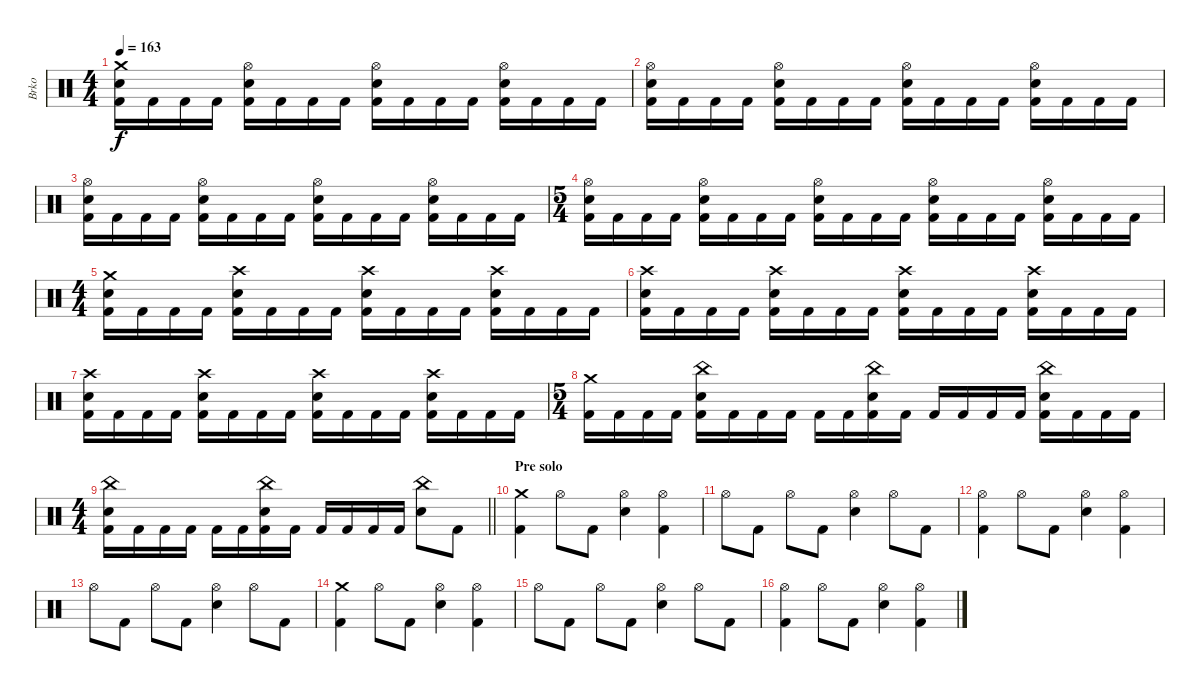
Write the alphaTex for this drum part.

\track ("Brko" "Brko") {instrument percussion}
\staff {score}
\articulation defaults
\ts (4 4)
\tempo 163
\clef neutral
\ks c
("Crash medium (hit)" "Electric Snare (hit)" "Kick (hit) 2").16{dy f} "Kick (hit) 2".16 "Kick (hit) 2".16 "Kick (hit) 2".16 ("Hi-Hat (open)" "Electric Snare (hit)" "Kick (hit) 2").16 "Kick (hit) 2".16 "Kick (hit) 2".16 "Kick (hit) 2".16 ("Hi-Hat (open)" "Electric Snare (hit)" "Kick (hit) 2").16 "Kick (hit) 2".16 "Kick (hit) 2".16 "Kick (hit) 2".16 ("Hi-Hat (open)" "Electric Snare (hit)" "Kick (hit) 2").16 "Kick (hit) 2".16 "Kick (hit) 2".16 "Kick (hit) 2".16 |
("Hi-Hat (open)" "Electric Snare (hit)" "Kick (hit) 2").16 "Kick (hit) 2".16 "Kick (hit) 2".16 "Kick (hit) 2".16 ("Hi-Hat (open)" "Electric Snare (hit)" "Kick (hit) 2").16 "Kick (hit) 2".16 "Kick (hit) 2".16 "Kick (hit) 2".16 ("Hi-Hat (open)" "Electric Snare (hit)" "Kick (hit) 2").16 "Kick (hit) 2".16 "Kick (hit) 2".16 "Kick (hit) 2".16 ("Hi-Hat (open)" "Electric Snare (hit)" "Kick (hit) 2").16 "Kick (hit) 2".16 "Kick (hit) 2".16 "Kick (hit) 2".16 |
("Hi-Hat (open)" "Electric Snare (hit)" "Kick (hit) 2").16 "Kick (hit) 2".16 "Kick (hit) 2".16 "Kick (hit) 2".16 ("Hi-Hat (open)" "Electric Snare (hit)" "Kick (hit) 2").16 "Kick (hit) 2".16 "Kick (hit) 2".16 "Kick (hit) 2".16 ("Hi-Hat (open)" "Electric Snare (hit)" "Kick (hit) 2").16 "Kick (hit) 2".16 "Kick (hit) 2".16 "Kick (hit) 2".16 ("Hi-Hat (open)" "Electric Snare (hit)" "Kick (hit) 2").16 "Kick (hit) 2".16 "Kick (hit) 2".16 "Kick (hit) 2".16 |
\ts (5 4)
("Hi-Hat (open)" "Electric Snare (hit)" "Kick (hit) 2").16 "Kick (hit) 2".16 "Kick (hit) 2".16 "Kick (hit) 2".16 ("Hi-Hat (open)" "Electric Snare (hit)" "Kick (hit) 2").16 "Kick (hit) 2".16 "Kick (hit) 2".16 "Kick (hit) 2".16 ("Hi-Hat (open)" "Electric Snare (hit)" "Kick (hit) 2").16 "Kick (hit) 2".16 "Kick (hit) 2".16 "Kick (hit) 2".16 ("Hi-Hat (open)" "Electric Snare (hit)" "Kick (hit) 2").16 "Kick (hit) 2".16 "Kick (hit) 2".16 "Kick (hit) 2".16 ("Hi-Hat (open)" "Electric Snare (hit)" "Kick (hit) 2").16 "Kick (hit) 2".16 "Kick (hit) 2".16 "Kick (hit) 2".16 |
\ts (4 4)
("Crash medium (hit)" "Electric Snare (hit)" "Kick (hit) 2").16 "Kick (hit) 2".16 "Kick (hit) 2".16 "Kick (hit) 2".16 ("Crash high (hit)" "Electric Snare (hit)" "Kick (hit) 2").16 "Kick (hit) 2".16 "Kick (hit) 2".16 "Kick (hit) 2".16 ("Crash high (hit)" "Electric Snare (hit)" "Kick (hit) 2").16 "Kick (hit) 2".16 "Kick (hit) 2".16 "Kick (hit) 2".16 ("Crash high (hit)" "Electric Snare (hit)" "Kick (hit) 2").16 "Kick (hit) 2".16 "Kick (hit) 2".16 "Kick (hit) 2".16 |
("Crash high (hit)" "Electric Snare (hit)" "Kick (hit) 2").16 "Kick (hit) 2".16 "Kick (hit) 2".16 "Kick (hit) 2".16 ("Crash high (hit)" "Electric Snare (hit)" "Kick (hit) 2").16 "Kick (hit) 2".16 "Kick (hit) 2".16 "Kick (hit) 2".16 ("Crash high (hit)" "Electric Snare (hit)" "Kick (hit) 2").16 "Kick (hit) 2".16 "Kick (hit) 2".16 "Kick (hit) 2".16 ("Crash high (hit)" "Electric Snare (hit)" "Kick (hit) 2").16 "Kick (hit) 2".16 "Kick (hit) 2".16 "Kick (hit) 2".16 |
("Crash high (hit)" "Electric Snare (hit)" "Kick (hit) 2").16 "Kick (hit) 2".16 "Kick (hit) 2".16 "Kick (hit) 2".16 ("Crash high (hit)" "Electric Snare (hit)" "Kick (hit) 2").16 "Kick (hit) 2".16 "Kick (hit) 2".16 "Kick (hit) 2".16 ("Crash high (hit)" "Electric Snare (hit)" "Kick (hit) 2").16 "Kick (hit) 2".16 "Kick (hit) 2".16 "Kick (hit) 2".16 ("Crash high (hit)" "Electric Snare (hit)" "Kick (hit) 2").16 "Kick (hit) 2".16 "Kick (hit) 2".16 "Kick (hit) 2".16 |
\ts (5 4)
("Crash medium (hit)" "Kick (hit) 2").16 "Kick (hit) 2".16 "Kick (hit) 2".16 "Kick (hit) 2".16 ("China (hit)" "Electric Snare (hit)" "Kick (hit) 2").16 "Kick (hit) 2".16 "Kick (hit) 2".16 "Kick (hit) 2".16 "Kick (hit) 2".16 "Kick (hit) 2".16 ("China (hit)" "Electric Snare (hit)" "Kick (hit) 2").16 "Kick (hit) 2".16 "Kick (hit) 2".16 "Kick (hit) 2".16 "Kick (hit) 2".16 "Kick (hit) 2".16 ("China (hit)" "Electric Snare (hit)" "Kick (hit) 2").16 "Kick (hit) 2".16 "Kick (hit) 2".16 "Kick (hit) 2".16 |
\ts (4 4)
\barLineRight lightlight
("China (hit)" "Electric Snare (hit)" "Kick (hit) 2").16 "Kick (hit) 2".16 "Kick (hit) 2".16 "Kick (hit) 2".16 "Kick (hit) 2".16 "Kick (hit) 2".16 ("China (hit)" "Electric Snare (hit)" "Kick (hit) 2").16 "Kick (hit) 2".16 "Kick (hit) 2".16 "Kick (hit) 2".16 "Kick (hit) 2".16 "Kick (hit) 2".16 ("China (hit)" "Electric Snare (hit)").8 "Kick (hit) 2".8 |
\section ("" "Pre solo")
("Crash medium (hit)" "Kick (hit) 2").4 "Hi-Hat (open)".8 "Kick (hit) 2".8 ("Hi-Hat (open)" "Electric Snare (hit)").4 ("Hi-Hat (open)" "Kick (hit) 2").4 |
"Hi-Hat (open)".8 "Kick (hit) 2".8 "Hi-Hat (open)".8 "Kick (hit) 2".8 ("Hi-Hat (open)" "Electric Snare (hit)").4 "Hi-Hat (open)".8 "Kick (hit) 2".8 |
("Hi-Hat (open)" "Kick (hit) 2").4 "Hi-Hat (open)".8 "Kick (hit) 2".8 ("Hi-Hat (open)" "Electric Snare (hit)").4 ("Hi-Hat (open)" "Kick (hit) 2").4 |
"Hi-Hat (open)".8 "Kick (hit) 2".8 "Hi-Hat (open)".8 "Kick (hit) 2".8 ("Hi-Hat (open)" "Electric Snare (hit)").4 "Hi-Hat (open)".8 "Kick (hit) 2".8 |
("Crash medium (hit)" "Kick (hit) 2").4 "Hi-Hat (open)".8 "Kick (hit) 2".8 ("Hi-Hat (open)" "Electric Snare (hit)").4 ("Hi-Hat (open)" "Kick (hit) 2").4 |
"Hi-Hat (open)".8 "Kick (hit) 2".8 "Hi-Hat (open)".8 "Kick (hit) 2".8 ("Hi-Hat (open)" "Electric Snare (hit)").4 "Hi-Hat (open)".8 "Kick (hit) 2".8 |
("Hi-Hat (open)" "Kick (hit) 2").4 "Hi-Hat (open)".8 "Kick (hit) 2".8 ("Hi-Hat (open)" "Electric Snare (hit)").4 ("Hi-Hat (open)" "Kick (hit) 2").4
